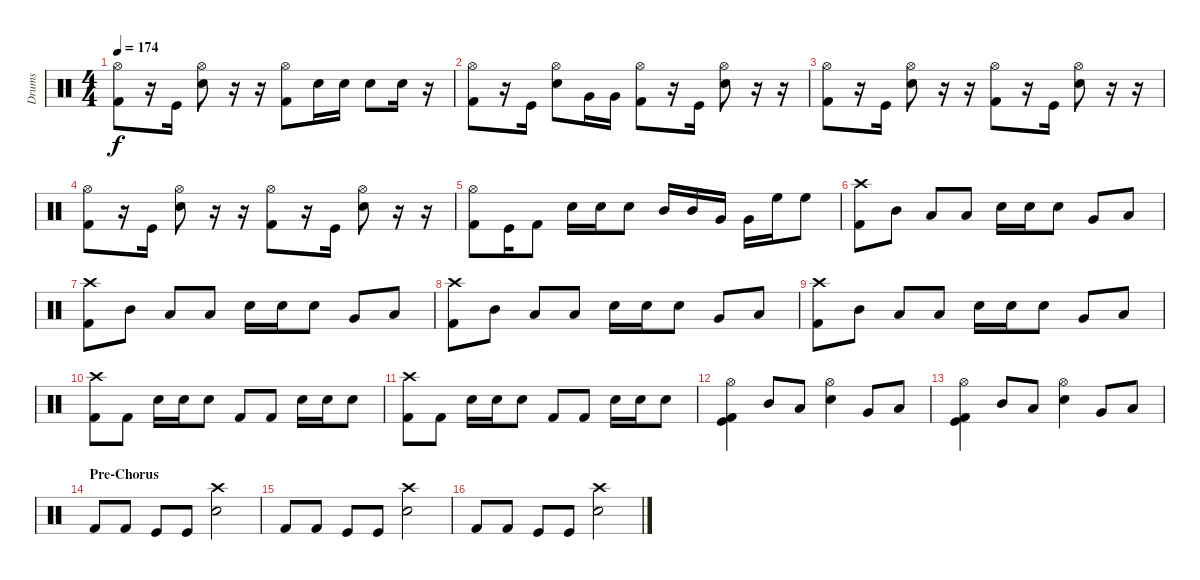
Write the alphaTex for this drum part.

\track ("Drums" "Drums") {instrument percussion}
\staff {score}
\articulation defaults
\ts (4 4)
\tempo 174
\clef neutral
\ks c
("Hi-Hat (open)" "Kick (hit) 2").8{dy f} r.16 "Kick (hit)".16 ("Hi-Hat (open)" "Snare (hit) 2").8 r.16 r.16 ("Hi-Hat (open)" "Kick (hit) 2").8 "Snare (hit) 2".16 "Snare (hit) 2".16 "Snare (hit) 2".8 "Snare (hit) 2".16 r.16 |
("Hi-Hat (open)" "Kick (hit) 2").8 r.16 "Kick (hit)".16 ("Hi-Hat (open)" "Snare (hit) 2").8 "Very Low Tom (hit)".16 "Very Low Tom (hit)".16 ("Hi-Hat (open)" "Kick (hit) 2").8 r.16 "Kick (hit)".16 ("Hi-Hat (open)" "Snare (hit) 2").8 r.16 r.16 |
("Hi-Hat (open)" "Kick (hit) 2").8 r.16 "Kick (hit)".16 ("Hi-Hat (open)" "Snare (hit) 2").8 r.16 r.16 ("Hi-Hat (open)" "Kick (hit) 2").8 r.16 "Kick (hit)".16 ("Hi-Hat (open)" "Snare (hit) 2").8 r.16 r.16 |
("Hi-Hat (open)" "Kick (hit) 2").8 r.16 "Kick (hit)".16 ("Hi-Hat (open)" "Snare (hit) 2").8 r.16 r.16 ("Hi-Hat (open)" "Kick (hit) 2").8 r.16 "Kick (hit)".16 ("Hi-Hat (open)" "Snare (hit) 2").8 r.16 r.16 |
("Hi-Hat (open)" "Kick (hit) 2").8 "Kick (hit)".16 "Kick (hit) 2".8 "Snare (hit) 2".16 "Snare (hit) 2".16 "Snare (hit) 2".8 "Mid Tom (hit)".16 "Mid Tom (hit)".16 "Very Low Tom (hit)".16 "Very Low Tom (hit)".16 "High Floor Tom (hit)".16 "High Floor Tom (hit)".8 |
("Crash high (hit)" "Kick (hit) 2").8 "Mid Tom (hit)".8 "Low Tom (hit)".8 "Low Tom (hit)".8 "Snare (hit) 2".16 "Snare (hit) 2".16 "Snare (hit) 2".8 "Very Low Tom (hit)".8 "Low Floor Tom (hit)".8 |
("Crash high (hit)" "Kick (hit) 2").8 "Mid Tom (hit)".8 "Low Tom (hit)".8 "Low Tom (hit)".8 "Snare (hit) 2".16 "Snare (hit) 2".16 "Snare (hit) 2".8 "Very Low Tom (hit)".8 "Low Floor Tom (hit)".8 |
("Crash high (hit)" "Kick (hit) 2").8 "Mid Tom (hit)".8 "Low Tom (hit)".8 "Low Tom (hit)".8 "Snare (hit) 2".16 "Snare (hit) 2".16 "Snare (hit) 2".8 "Very Low Tom (hit)".8 "Low Floor Tom (hit)".8 |
("Crash high (hit)" "Kick (hit) 2").8 "Mid Tom (hit)".8 "Low Tom (hit)".8 "Low Tom (hit)".8 "Snare (hit) 2".16 "Snare (hit) 2".16 "Snare (hit) 2".8 "Very Low Tom (hit)".8 "Low Floor Tom (hit)".8 |
("Crash high (hit)" "Kick (hit) 2").8 "Kick (hit) 2".8 "Snare (hit) 2".16 "Snare (hit) 2".16 "Snare (hit) 2".8 "Kick (hit) 2".8 "Kick (hit) 2".8 "Snare (hit) 2".16 "Snare (hit) 2".16 "Snare (hit) 2".8 |
("Crash high (hit)" "Kick (hit) 2").8 "Kick (hit) 2".8 "Snare (hit) 2".16 "Snare (hit) 2".16 "Snare (hit) 2".8 "Kick (hit) 2".8 "Kick (hit) 2".8 "Snare (hit) 2".16 "Snare (hit) 2".16 "Snare (hit) 2".8 |
("Hi-Hat (open)" "Kick (hit) 2" "Kick (hit)").4 "Mid Tom (hit)".8 "Low Tom (hit)".8 ("Hi-Hat (open)" "Snare (hit) 2").4 "Very Low Tom (hit)".8 "Low Floor Tom (hit)".8 |
("Hi-Hat (open)" "Kick (hit) 2" "Kick (hit)").4 "Mid Tom (hit)".8 "Low Tom (hit)".8 ("Hi-Hat (open)" "Snare (hit) 2").4 "Very Low Tom (hit)".8 "Low Floor Tom (hit)".8 |
\section ("" "Pre-Chorus")
"Kick (hit) 2".8 "Kick (hit) 2".8 "Kick (hit)".8 "Kick (hit)".8 ("Crash high (hit)" "Snare (hit) 2").2 |
"Kick (hit) 2".8 "Kick (hit) 2".8 "Kick (hit)".8 "Kick (hit)".8 ("Crash high (hit)" "Snare (hit) 2").2 |
"Kick (hit) 2".8 "Kick (hit) 2".8 "Kick (hit)".8 "Kick (hit)".8 ("Crash high (hit)" "Snare (hit) 2").2
